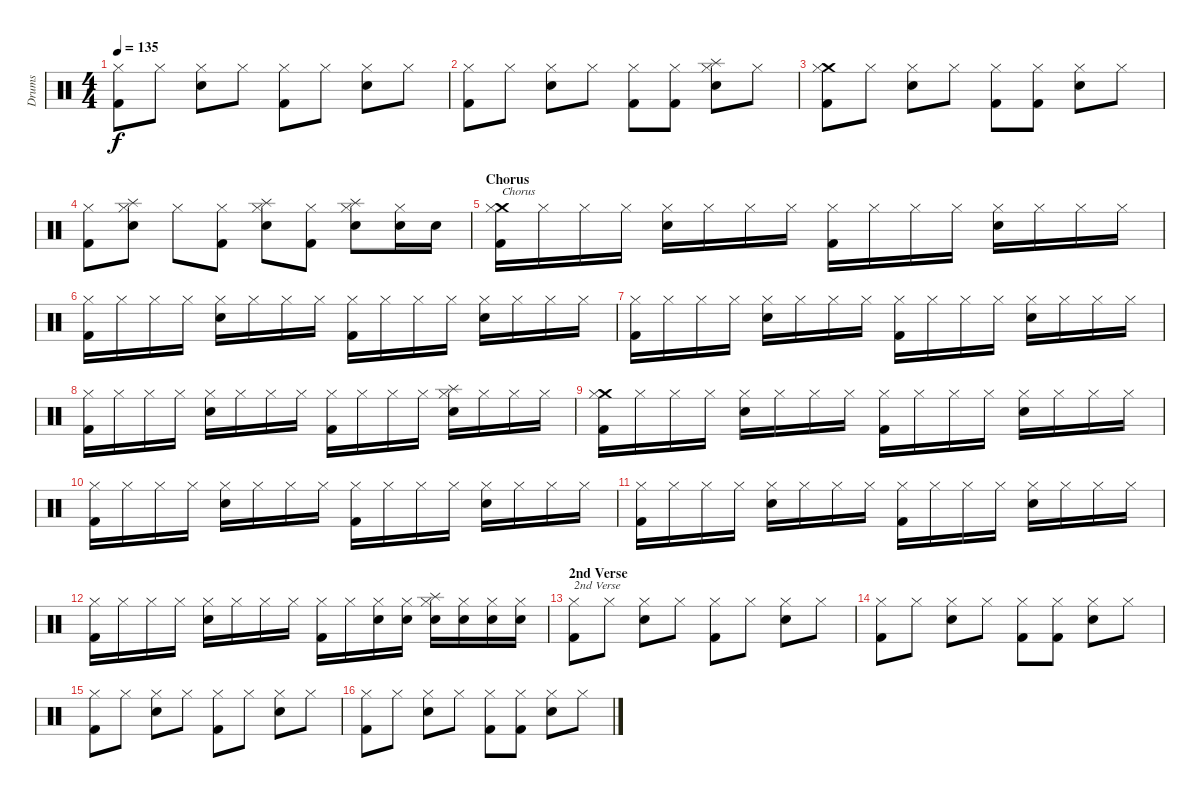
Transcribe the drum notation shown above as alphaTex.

\track ("Drums" "Drums") {instrument percussion}
\staff {score}
\articulation defaults
\ts (4 4)
\tempo 135
\clef neutral
\ks c
("Hi-Hat (closed)" "Kick (hit) 2").8{dy f} "Hi-Hat (closed)".8 ("Hi-Hat (closed)" "Snare (hit) 2").8 "Hi-Hat (closed)".8 ("Hi-Hat (closed)" "Kick (hit) 2").8 "Hi-Hat (closed)".8 ("Hi-Hat (closed)" "Snare (hit) 2").8 "Hi-Hat (closed)".8 |
("Hi-Hat (closed)" "Kick (hit) 2").8 "Hi-Hat (closed)".8 ("Hi-Hat (closed)" "Snare (hit) 2").8 "Hi-Hat (closed)".8 ("Hi-Hat (closed)" "Kick (hit) 2").8 ("Hi-Hat (closed)" "Kick (hit) 2").8 ("Splash (hit)" "Hi-Hat (closed)" "Snare (hit) 2").8 "Hi-Hat (closed)".8 |
("Crash medium (hit)" "Hi-Hat (closed)" "Kick (hit) 2").8 "Hi-Hat (closed)".8 ("Hi-Hat (closed)" "Snare (hit) 2").8 "Hi-Hat (closed)".8 ("Hi-Hat (closed)" "Kick (hit) 2").8 ("Hi-Hat (closed)" "Kick (hit) 2").8 ("Hi-Hat (closed)" "Snare (hit) 2").8 "Hi-Hat (closed)".8 |
("Hi-Hat (closed)" "Kick (hit) 2").8 ("Splash (hit)" "Hi-Hat (closed)" "Snare (hit) 2").8 "Hi-Hat (closed)".8 ("Hi-Hat (closed)" "Kick (hit) 2").8 ("Splash (hit)" "Hi-Hat (closed)" "Snare (hit) 2").8 ("Hi-Hat (closed)" "Kick (hit) 2").8 ("Splash (hit)" "Hi-Hat (closed)" "Snare (hit) 2").8 ("Hi-Hat (closed)" "Snare (hit) 2").16 "Snare (hit) 2".16 |
\section ("" "Chorus")
("Crash medium (hit)" "Hi-Hat (closed)" "Kick (hit) 2").16{txt "Chorus"} "Hi-Hat (closed)".16 "Hi-Hat (closed)".16 "Hi-Hat (closed)".16 ("Hi-Hat (closed)" "Snare (hit) 2").16 "Hi-Hat (closed)".16 "Hi-Hat (closed)".16 "Hi-Hat (closed)".16 ("Hi-Hat (closed)" "Kick (hit) 2").16 "Hi-Hat (closed)".16 "Hi-Hat (closed)".16 "Hi-Hat (closed)".16 ("Hi-Hat (closed)" "Snare (hit) 2").16 "Hi-Hat (closed)".16 "Hi-Hat (closed)".16 "Hi-Hat (closed)".16 |
("Hi-Hat (closed)" "Kick (hit) 2").16 "Hi-Hat (closed)".16 "Hi-Hat (closed)".16 "Hi-Hat (closed)".16 ("Hi-Hat (closed)" "Snare (hit) 2").16 "Hi-Hat (closed)".16 "Hi-Hat (closed)".16 "Hi-Hat (closed)".16 ("Hi-Hat (closed)" "Kick (hit) 2").16 "Hi-Hat (closed)".16 "Hi-Hat (closed)".16 "Hi-Hat (closed)".16 ("Hi-Hat (closed)" "Snare (hit) 2").16 "Hi-Hat (closed)".16 "Hi-Hat (closed)".16 "Hi-Hat (closed)".16 |
("Hi-Hat (closed)" "Kick (hit) 2").16 "Hi-Hat (closed)".16 "Hi-Hat (closed)".16 "Hi-Hat (closed)".16 ("Hi-Hat (closed)" "Snare (hit) 2").16 "Hi-Hat (closed)".16 "Hi-Hat (closed)".16 "Hi-Hat (closed)".16 ("Hi-Hat (closed)" "Kick (hit) 2").16 "Hi-Hat (closed)".16 "Hi-Hat (closed)".16 "Hi-Hat (closed)".16 ("Hi-Hat (closed)" "Snare (hit) 2").16 "Hi-Hat (closed)".16 "Hi-Hat (closed)".16 "Hi-Hat (closed)".16 |
("Hi-Hat (closed)" "Kick (hit) 2").16 "Hi-Hat (closed)".16 "Hi-Hat (closed)".16 "Hi-Hat (closed)".16 ("Hi-Hat (closed)" "Snare (hit) 2").16 "Hi-Hat (closed)".16 "Hi-Hat (closed)".16 "Hi-Hat (closed)".16 ("Hi-Hat (closed)" "Kick (hit) 2").16 "Hi-Hat (closed)".16 "Hi-Hat (closed)".16 "Hi-Hat (closed)".16 ("Splash (hit)" "Hi-Hat (closed)" "Snare (hit) 2").16 "Hi-Hat (closed)".16 "Hi-Hat (closed)".16 "Hi-Hat (closed)".16 |
("Crash medium (hit)" "Hi-Hat (closed)" "Kick (hit) 2").16 "Hi-Hat (closed)".16 "Hi-Hat (closed)".16 "Hi-Hat (closed)".16 ("Hi-Hat (closed)" "Snare (hit) 2").16 "Hi-Hat (closed)".16 "Hi-Hat (closed)".16 "Hi-Hat (closed)".16 ("Hi-Hat (closed)" "Kick (hit) 2").16 "Hi-Hat (closed)".16 "Hi-Hat (closed)".16 "Hi-Hat (closed)".16 ("Hi-Hat (closed)" "Snare (hit) 2").16 "Hi-Hat (closed)".16 "Hi-Hat (closed)".16 "Hi-Hat (closed)".16 |
("Hi-Hat (closed)" "Kick (hit) 2").16 "Hi-Hat (closed)".16 "Hi-Hat (closed)".16 "Hi-Hat (closed)".16 ("Hi-Hat (closed)" "Snare (hit) 2").16 "Hi-Hat (closed)".16 "Hi-Hat (closed)".16 "Hi-Hat (closed)".16 ("Hi-Hat (closed)" "Kick (hit) 2").16 "Hi-Hat (closed)".16 "Hi-Hat (closed)".16 "Hi-Hat (closed)".16 ("Hi-Hat (closed)" "Snare (hit) 2").16 "Hi-Hat (closed)".16 "Hi-Hat (closed)".16 "Hi-Hat (closed)".16 |
("Hi-Hat (closed)" "Kick (hit) 2").16 "Hi-Hat (closed)".16 "Hi-Hat (closed)".16 "Hi-Hat (closed)".16 ("Hi-Hat (closed)" "Snare (hit) 2").16 "Hi-Hat (closed)".16 "Hi-Hat (closed)".16 "Hi-Hat (closed)".16 ("Hi-Hat (closed)" "Kick (hit) 2").16 "Hi-Hat (closed)".16 "Hi-Hat (closed)".16 "Hi-Hat (closed)".16 ("Hi-Hat (closed)" "Snare (hit) 2").16 "Hi-Hat (closed)".16 "Hi-Hat (closed)".16 "Hi-Hat (closed)".16 |
("Hi-Hat (closed)" "Kick (hit) 2").16 "Hi-Hat (closed)".16 "Hi-Hat (closed)".16 "Hi-Hat (closed)".16 ("Hi-Hat (closed)" "Snare (hit) 2").16 "Hi-Hat (closed)".16 "Hi-Hat (closed)".16 "Hi-Hat (closed)".16 ("Hi-Hat (closed)" "Kick (hit) 2").16 "Hi-Hat (closed)".16 ("Hi-Hat (closed)" "Snare (hit) 2").16 ("Hi-Hat (closed)" "Snare (hit) 2").16 ("Splash (hit)" "Hi-Hat (closed)" "Snare (hit) 2").16 ("Hi-Hat (closed)" "Snare (hit) 2").16 ("Hi-Hat (closed)" "Snare (hit) 2").16 ("Hi-Hat (closed)" "Snare (hit) 2").16 |
\section ("" "2nd Verse")
("Hi-Hat (closed)" "Kick (hit) 2").8{txt "2nd Verse"} "Hi-Hat (closed)".8 ("Hi-Hat (closed)" "Snare (hit) 2").8 "Hi-Hat (closed)".8 ("Hi-Hat (closed)" "Kick (hit) 2").8 "Hi-Hat (closed)".8 ("Hi-Hat (closed)" "Snare (hit) 2").8 "Hi-Hat (closed)".8 |
("Hi-Hat (closed)" "Kick (hit) 2").8 "Hi-Hat (closed)".8 ("Hi-Hat (closed)" "Snare (hit) 2").8 "Hi-Hat (closed)".8 ("Hi-Hat (closed)" "Kick (hit) 2").8 ("Hi-Hat (closed)" "Kick (hit) 2").8 ("Hi-Hat (closed)" "Snare (hit) 2").8 "Hi-Hat (closed)".8 |
("Hi-Hat (closed)" "Kick (hit) 2").8 "Hi-Hat (closed)".8 ("Hi-Hat (closed)" "Snare (hit) 2").8 "Hi-Hat (closed)".8 ("Hi-Hat (closed)" "Kick (hit) 2").8 "Hi-Hat (closed)".8 ("Hi-Hat (closed)" "Snare (hit) 2").8 "Hi-Hat (closed)".8 |
("Hi-Hat (closed)" "Kick (hit) 2").8 "Hi-Hat (closed)".8 ("Hi-Hat (closed)" "Snare (hit) 2").8 "Hi-Hat (closed)".8 ("Hi-Hat (closed)" "Kick (hit) 2").8 ("Hi-Hat (closed)" "Kick (hit) 2").8 ("Hi-Hat (closed)" "Snare (hit) 2").8 "Hi-Hat (closed)".8
